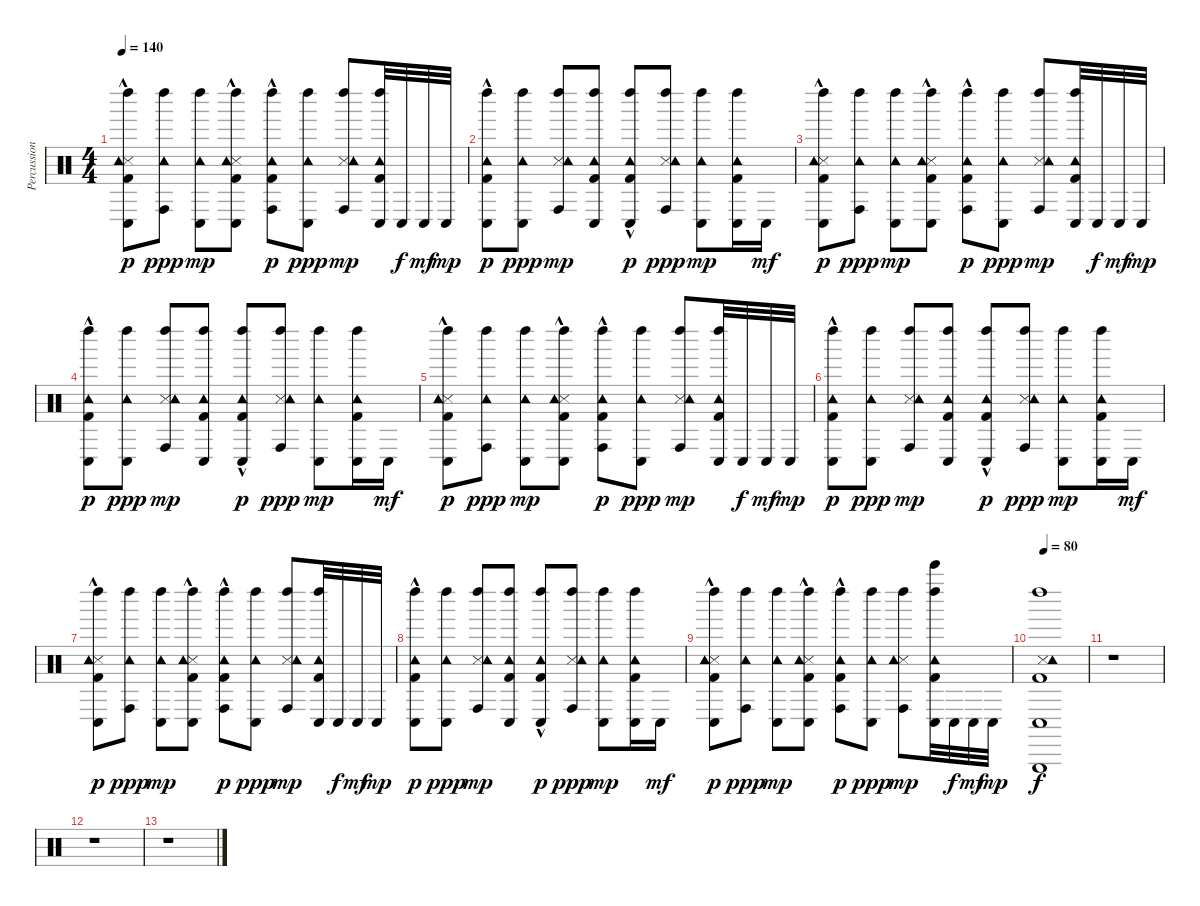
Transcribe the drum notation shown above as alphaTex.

\track ("Percussions" "Percussion") {instrument percussion}
\staff {score}
\articulation defaults
\ts (4 4)
\tempo 140
\clef neutral
\ks c
("Snare (side stick) 3"{hac} "Kick (hit) 2"{hac} "Left Maraca (hit)" "Conga low (hit)" "Tambourine (hit)").8{dy p} ("Left Maraca (hit)" "Conga high (hit)" "Tambourine (hit)").8{dy ppp} ("Left Maraca (hit)" "Conga low (hit)" "Tambourine (hit)").8{dy mp} ("Snare (side stick) 3"{hac} "Kick (hit) 2" "Left Maraca (hit)" "Conga low (hit)" "Tambourine (hit)").8 ("Kick (hit) 2"{hac} "Left Maraca (hit)" "Conga high (hit)" "Tambourine (hit)").8{dy p} ("Left Maraca (hit)" "Conga low (hit)" "Tambourine (hit)").8{dy ppp} ("Snare (side stick) 3" "Left Maraca (hit)" "Conga high (hit)" "Tambourine (hit)").8{dy mp} ("Kick (hit) 2" "Left Maraca (hit)" "Conga low (hit)" "Tambourine (hit)").32 "Conga low (hit)".32{dy f} "Conga low (hit)".32{dy mf} "Conga low (hit)".32{dy mp} |
("Kick (hit) 2"{hac} "Left Maraca (hit)" "Conga low (hit)" "Tambourine (hit)").8{dy p} ("Left Maraca (hit)" "Conga low (hit)" "Tambourine (hit)").8{dy ppp} ("Snare (side stick) 3" "Left Maraca (hit)" "Conga high (hit)" "Tambourine (hit)").8{dy mp} ("Kick (hit) 2" "Left Maraca (hit)" "Conga low (hit)" "Tambourine (hit)").8 ("Kick (hit) 2"{hac} "Left Maraca (hit)" "Conga low (hit)" "Tambourine (hit)").8{dy p} ("Snare (side stick) 3" "Left Maraca (hit)" "Conga high (hit)" "Tambourine (hit)").8{dy ppp} ("Left Maraca (hit)" "Conga low (hit)" "Tambourine (hit)").8{dy mp} ("Kick (hit) 2" "Left Maraca (hit)" "Conga low (hit)" "Tambourine (hit)").16 "Conga low (hit)".16{dy mf} |
("Snare (side stick) 3"{hac} "Kick (hit) 2"{hac} "Left Maraca (hit)" "Conga low (hit)" "Tambourine (hit)").8{dy p} ("Left Maraca (hit)" "Conga high (hit)" "Tambourine (hit)").8{dy ppp} ("Left Maraca (hit)" "Conga low (hit)" "Tambourine (hit)").8{dy mp} ("Snare (side stick) 3"{hac} "Kick (hit) 2" "Left Maraca (hit)" "Conga low (hit)" "Tambourine (hit)").8 ("Kick (hit) 2"{hac} "Left Maraca (hit)" "Conga high (hit)" "Tambourine (hit)").8{dy p} ("Left Maraca (hit)" "Conga low (hit)" "Tambourine (hit)").8{dy ppp} ("Snare (side stick) 3" "Left Maraca (hit)" "Conga high (hit)" "Tambourine (hit)").8{dy mp} ("Kick (hit) 2" "Left Maraca (hit)" "Conga low (hit)" "Tambourine (hit)").32 "Conga low (hit)".32{dy f} "Conga low (hit)".32{dy mf} "Conga low (hit)".32{dy mp} |
("Kick (hit) 2"{hac} "Left Maraca (hit)" "Conga low (hit)" "Tambourine (hit)").8{dy p} ("Left Maraca (hit)" "Conga low (hit)" "Tambourine (hit)").8{dy ppp} ("Snare (side stick) 3" "Left Maraca (hit)" "Conga high (hit)" "Tambourine (hit)").8{dy mp} ("Kick (hit) 2" "Left Maraca (hit)" "Conga low (hit)" "Tambourine (hit)").8 ("Kick (hit) 2"{hac} "Left Maraca (hit)" "Conga low (hit)" "Tambourine (hit)").8{dy p} ("Snare (side stick) 3" "Left Maraca (hit)" "Conga high (hit)" "Tambourine (hit)").8{dy ppp} ("Left Maraca (hit)" "Conga low (hit)" "Tambourine (hit)").8{dy mp} ("Kick (hit) 2" "Left Maraca (hit)" "Conga low (hit)" "Tambourine (hit)").16 "Conga low (hit)".16{dy mf} |
("Snare (side stick) 3"{hac} "Kick (hit) 2"{hac} "Left Maraca (hit)" "Conga low (hit)" "Tambourine (hit)").8{dy p} ("Left Maraca (hit)" "Conga high (hit)" "Tambourine (hit)").8{dy ppp} ("Left Maraca (hit)" "Conga low (hit)" "Tambourine (hit)").8{dy mp} ("Snare (side stick) 3"{hac} "Kick (hit) 2" "Left Maraca (hit)" "Conga low (hit)" "Tambourine (hit)").8 ("Kick (hit) 2"{hac} "Left Maraca (hit)" "Conga high (hit)" "Tambourine (hit)").8{dy p} ("Left Maraca (hit)" "Conga low (hit)" "Tambourine (hit)").8{dy ppp} ("Snare (side stick) 3" "Left Maraca (hit)" "Conga high (hit)" "Tambourine (hit)").8{dy mp} ("Kick (hit) 2" "Left Maraca (hit)" "Conga low (hit)" "Tambourine (hit)").32 "Conga low (hit)".32{dy f} "Conga low (hit)".32{dy mf} "Conga low (hit)".32{dy mp} |
("Kick (hit) 2"{hac} "Left Maraca (hit)" "Conga low (hit)" "Tambourine (hit)").8{dy p} ("Left Maraca (hit)" "Conga low (hit)" "Tambourine (hit)").8{dy ppp} ("Snare (side stick) 3" "Left Maraca (hit)" "Conga high (hit)" "Tambourine (hit)").8{dy mp} ("Kick (hit) 2" "Left Maraca (hit)" "Conga low (hit)" "Tambourine (hit)").8 ("Kick (hit) 2"{hac} "Left Maraca (hit)" "Conga low (hit)" "Tambourine (hit)").8{dy p} ("Snare (side stick) 3" "Left Maraca (hit)" "Conga high (hit)" "Tambourine (hit)").8{dy ppp} ("Left Maraca (hit)" "Conga low (hit)" "Tambourine (hit)").8{dy mp} ("Kick (hit) 2" "Left Maraca (hit)" "Conga low (hit)" "Tambourine (hit)").16 "Conga low (hit)".16{dy mf} |
("Snare (side stick) 3"{hac} "Kick (hit) 2"{hac} "Left Maraca (hit)" "Conga low (hit)" "Tambourine (hit)").8{dy p} ("Left Maraca (hit)" "Conga high (hit)" "Tambourine (hit)").8{dy ppp} ("Left Maraca (hit)" "Conga low (hit)" "Tambourine (hit)").8{dy mp} ("Snare (side stick) 3"{hac} "Kick (hit) 2" "Left Maraca (hit)" "Conga low (hit)" "Tambourine (hit)").8 ("Kick (hit) 2"{hac} "Left Maraca (hit)" "Conga high (hit)" "Tambourine (hit)").8{dy p} ("Left Maraca (hit)" "Conga low (hit)" "Tambourine (hit)").8{dy ppp} ("Snare (side stick) 3" "Left Maraca (hit)" "Conga high (hit)" "Tambourine (hit)").8{dy mp} ("Kick (hit) 2" "Left Maraca (hit)" "Conga low (hit)" "Tambourine (hit)").32 "Conga low (hit)".32{dy f} "Conga low (hit)".32{dy mf} "Conga low (hit)".32{dy mp} |
("Kick (hit) 2"{hac} "Left Maraca (hit)" "Conga low (hit)" "Tambourine (hit)").8{dy p} ("Left Maraca (hit)" "Conga low (hit)" "Tambourine (hit)").8{dy ppp} ("Snare (side stick) 3" "Left Maraca (hit)" "Conga high (hit)" "Tambourine (hit)").8{dy mp} ("Kick (hit) 2" "Left Maraca (hit)" "Conga low (hit)" "Tambourine (hit)").8 ("Kick (hit) 2"{hac} "Left Maraca (hit)" "Conga low (hit)" "Tambourine (hit)").8{dy p} ("Snare (side stick) 3" "Left Maraca (hit)" "Conga high (hit)" "Tambourine (hit)").8{dy ppp} ("Left Maraca (hit)" "Conga low (hit)" "Tambourine (hit)").8{dy mp} ("Kick (hit) 2" "Left Maraca (hit)" "Conga low (hit)" "Tambourine (hit)").16 "Conga low (hit)".16{dy mf} |
("Snare (side stick) 3"{hac} "Kick (hit) 2"{hac} "Left Maraca (hit)" "Conga low (hit)" "Tambourine (hit)").8{dy p} ("Left Maraca (hit)" "Conga high (hit)" "Tambourine (hit)").8{dy ppp} ("Left Maraca (hit)" "Conga low (hit)" "Tambourine (hit)").8{dy mp} ("Snare (side stick) 3"{hac} "Kick (hit) 2" "Left Maraca (hit)" "Conga low (hit)" "Tambourine (hit)").8 ("Kick (hit) 2"{hac} "Left Maraca (hit)" "Conga high (hit)" "Tambourine (hit)").8{dy p} ("Left Maraca (hit)" "Conga low (hit)" "Tambourine (hit)").8{dy ppp} ("Snare (side stick) 3" "Left Maraca (hit)" "Conga high (hit)" "Tambourine (hit)").8{dy mp} ("Kick (hit) 2" "Left Maraca (hit)" "Conga low (hit)" "Tambourine (hit)" "Bell Tree (hit)").32 "Conga low (hit)".32{dy f} "Conga low (hit)".32{dy mf} "Conga low (hit)".32{dy mp} |
\tempo 80
("Snare (side stick) 3" "Kick (hit) 2" "Left Maraca (hit)" "Conga low (hit)" "Tambourine (hit)" "Triangle (hit)").1{dy f} |
r.1 |
r.1 |
r.1
